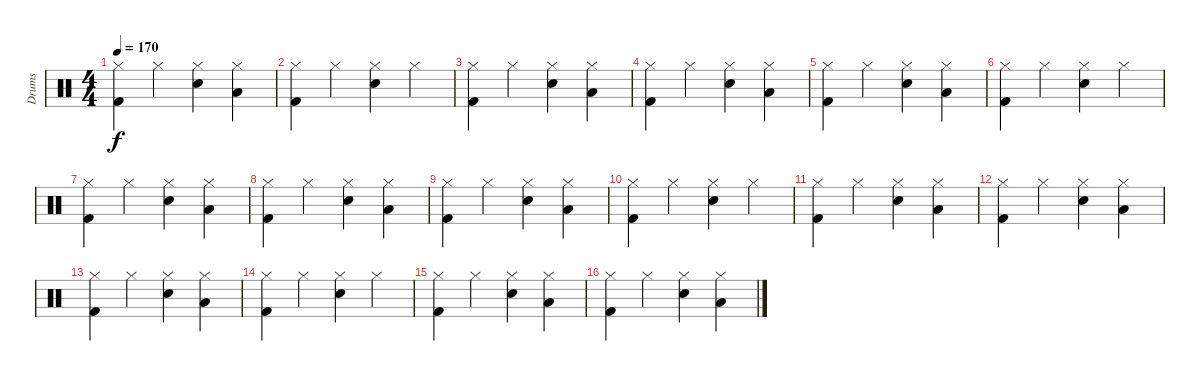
\track ("Drums" "Drums") {instrument percussion}
\staff {score}
\articulation defaults
\ts (4 4)
\tempo 170
\clef neutral
\ks c
("Kick (hit) 2" "Hi-Hat (closed)").4{dy f} "Hi-Hat (closed)".4 ("Snare (hit) 2" "Hi-Hat (closed)").4 ("Low Tom (hit)" "Hi-Hat (closed)").4 |
("Kick (hit) 2" "Hi-Hat (closed)").4 "Hi-Hat (closed)".4 ("Snare (hit) 2" "Hi-Hat (closed)").4 "Hi-Hat (closed)".4 |
("Kick (hit) 2" "Hi-Hat (closed)").4 "Hi-Hat (closed)".4 ("Snare (hit) 2" "Hi-Hat (closed)").4 ("Low Tom (hit)" "Hi-Hat (closed)").4 |
("Kick (hit) 2" "Hi-Hat (closed)").4 "Hi-Hat (closed)".4 ("Snare (hit) 2" "Hi-Hat (closed)").4 ("Low Tom (hit)" "Hi-Hat (closed)").4 |
("Kick (hit) 2" "Hi-Hat (closed)").4 "Hi-Hat (closed)".4 ("Snare (hit) 2" "Hi-Hat (closed)").4 ("Low Tom (hit)" "Hi-Hat (closed)").4 |
("Kick (hit) 2" "Hi-Hat (closed)").4 "Hi-Hat (closed)".4 ("Snare (hit) 2" "Hi-Hat (closed)").4 "Hi-Hat (closed)".4 |
("Kick (hit) 2" "Hi-Hat (closed)").4 "Hi-Hat (closed)".4 ("Snare (hit) 2" "Hi-Hat (closed)").4 ("Low Tom (hit)" "Hi-Hat (closed)").4 |
("Kick (hit) 2" "Hi-Hat (closed)").4 "Hi-Hat (closed)".4 ("Snare (hit) 2" "Hi-Hat (closed)").4 ("Low Tom (hit)" "Hi-Hat (closed)").4 |
("Kick (hit) 2" "Hi-Hat (closed)").4 "Hi-Hat (closed)".4 ("Snare (hit) 2" "Hi-Hat (closed)").4 ("Low Tom (hit)" "Hi-Hat (closed)").4 |
("Kick (hit) 2" "Hi-Hat (closed)").4 "Hi-Hat (closed)".4 ("Snare (hit) 2" "Hi-Hat (closed)").4 "Hi-Hat (closed)".4 |
("Kick (hit) 2" "Hi-Hat (closed)").4 "Hi-Hat (closed)".4 ("Snare (hit) 2" "Hi-Hat (closed)").4 ("Low Tom (hit)" "Hi-Hat (closed)").4 |
("Kick (hit) 2" "Hi-Hat (closed)").4 "Hi-Hat (closed)".4 ("Snare (hit) 2" "Hi-Hat (closed)").4 ("Low Tom (hit)" "Hi-Hat (closed)").4 |
("Kick (hit) 2" "Hi-Hat (closed)").4 "Hi-Hat (closed)".4 ("Snare (hit) 2" "Hi-Hat (closed)").4 ("Low Tom (hit)" "Hi-Hat (closed)").4 |
("Kick (hit) 2" "Hi-Hat (closed)").4 "Hi-Hat (closed)".4 ("Snare (hit) 2" "Hi-Hat (closed)").4 "Hi-Hat (closed)".4 |
("Kick (hit) 2" "Hi-Hat (closed)").4 "Hi-Hat (closed)".4 ("Snare (hit) 2" "Hi-Hat (closed)").4 ("Low Tom (hit)" "Hi-Hat (closed)").4 |
("Kick (hit) 2" "Hi-Hat (closed)").4 "Hi-Hat (closed)".4 ("Snare (hit) 2" "Hi-Hat (closed)").4 ("Low Tom (hit)" "Hi-Hat (closed)").4
